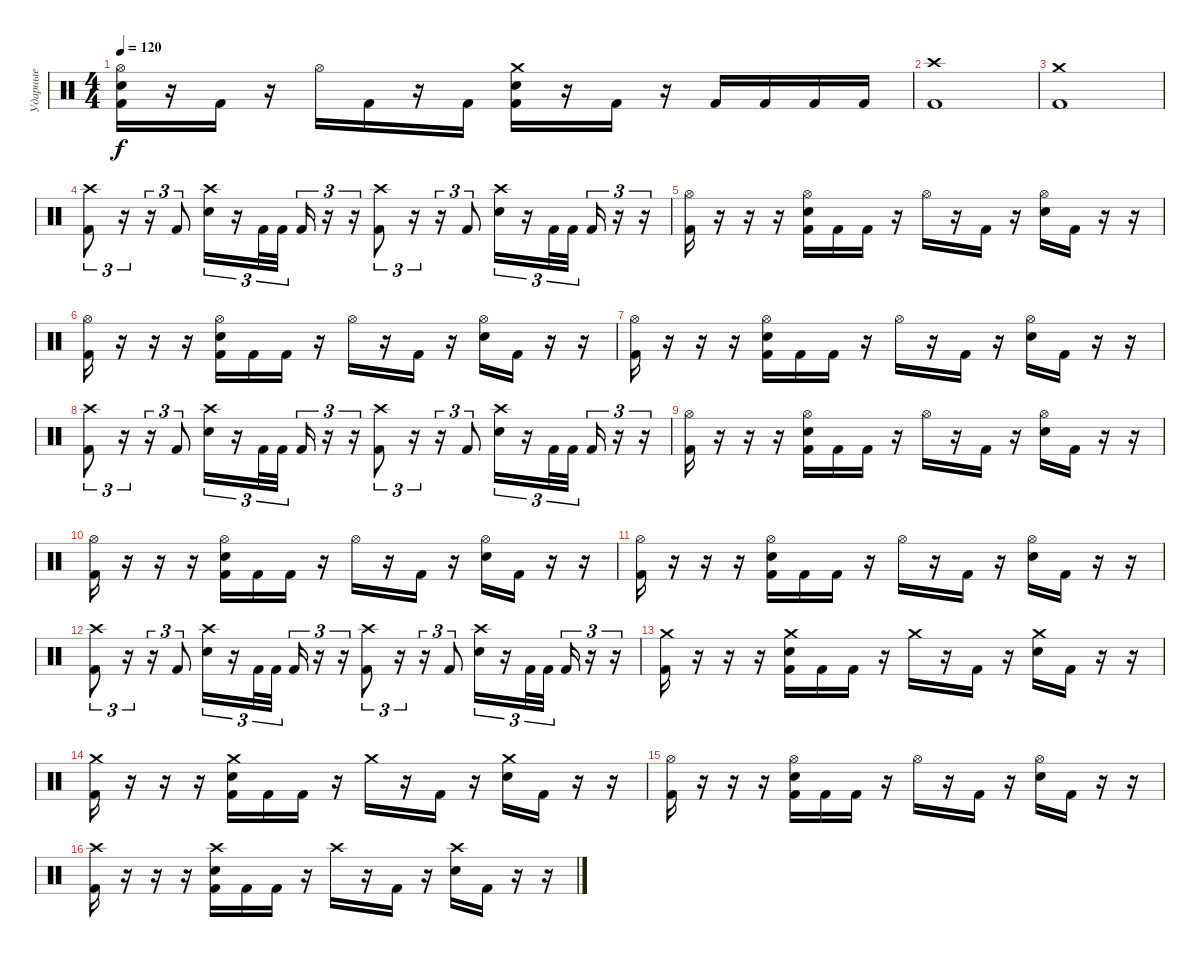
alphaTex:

\track ("Ударные" "Ударные") {instrument percussion}
\staff {score}
\articulation defaults
\ts (4 4)
\tempo 120
\clef neutral
\ks c
("Hi-Hat (open)" "Electric Snare (hit)" "Kick (hit) 2").16{dy f} r.16 "Kick (hit) 2".16 r.16 "Hi-Hat (open)".16 "Kick (hit) 2".16 r.16 "Kick (hit) 2".16 ("Crash medium (hit)" "Electric Snare (hit)" "Kick (hit) 2").16 r.16 "Kick (hit) 2".16 r.16 "Kick (hit) 2".16 "Kick (hit) 2".16 "Kick (hit) 2".16 "Kick (hit) 2".16 |
("Crash high (hit)" "Kick (hit) 2").1 |
("Crash medium (hit)" "Kick (hit) 2").1 |
("Crash high (hit)" "Kick (hit) 2").8{tu (3 2)} r.16{tu (3 2)} r.16{tu (3 2)} "Kick (hit) 2".8{tu (3 2)} ("Crash high (hit)" "Electric Snare (hit)").16{tu (3 2)} r.16{tu (3 2)} "Kick (hit) 2".32{tu (3 2)} "Kick (hit) 2".32{tu (3 2) beam splitsecondary} "Kick (hit) 2".16{tu (3 2)} r.16{tu (3 2)} r.16{tu (3 2)} ("Crash high (hit)" "Kick (hit) 2").8{tu (3 2)} r.16{tu (3 2)} r.16{tu (3 2)} "Kick (hit) 2".8{tu (3 2)} ("Crash high (hit)" "Electric Snare (hit)").16{tu (3 2)} r.16{tu (3 2)} "Kick (hit) 2".32{tu (3 2)} "Kick (hit) 2".32{tu (3 2) beam splitsecondary} "Kick (hit) 2".16{tu (3 2)} r.16{tu (3 2)} r.16{tu (3 2)} |
("Hi-Hat (open)" "Kick (hit) 2").16 r.16 r.16 r.16 ("Hi-Hat (open)" "Electric Snare (hit)" "Kick (hit) 2").16 "Kick (hit) 2".16 "Kick (hit) 2".16 r.16 "Hi-Hat (open)".16 r.16 "Kick (hit) 2".16 r.16 ("Hi-Hat (open)" "Electric Snare (hit)").16 "Kick (hit) 2".16 r.16 r.16 |
("Hi-Hat (open)" "Kick (hit) 2").16 r.16 r.16 r.16 ("Hi-Hat (open)" "Electric Snare (hit)" "Kick (hit) 2").16 "Kick (hit) 2".16 "Kick (hit) 2".16 r.16 "Hi-Hat (open)".16 r.16 "Kick (hit) 2".16 r.16 ("Hi-Hat (open)" "Electric Snare (hit)").16 "Kick (hit) 2".16 r.16 r.16 |
("Hi-Hat (open)" "Kick (hit) 2").16 r.16 r.16 r.16 ("Hi-Hat (open)" "Electric Snare (hit)" "Kick (hit) 2").16 "Kick (hit) 2".16 "Kick (hit) 2".16 r.16 "Hi-Hat (open)".16 r.16 "Kick (hit) 2".16 r.16 ("Hi-Hat (open)" "Electric Snare (hit)").16 "Kick (hit) 2".16 r.16 r.16 |
("Crash high (hit)" "Kick (hit) 2").8{tu (3 2)} r.16{tu (3 2)} r.16{tu (3 2)} "Kick (hit) 2".8{tu (3 2)} ("Crash high (hit)" "Electric Snare (hit)").16{tu (3 2)} r.16{tu (3 2)} "Kick (hit) 2".32{tu (3 2)} "Kick (hit) 2".32{tu (3 2) beam splitsecondary} "Kick (hit) 2".16{tu (3 2)} r.16{tu (3 2)} r.16{tu (3 2)} ("Crash high (hit)" "Kick (hit) 2").8{tu (3 2)} r.16{tu (3 2)} r.16{tu (3 2)} "Kick (hit) 2".8{tu (3 2)} ("Crash high (hit)" "Electric Snare (hit)").16{tu (3 2)} r.16{tu (3 2)} "Kick (hit) 2".32{tu (3 2)} "Kick (hit) 2".32{tu (3 2) beam splitsecondary} "Kick (hit) 2".16{tu (3 2)} r.16{tu (3 2)} r.16{tu (3 2)} |
("Hi-Hat (open)" "Kick (hit) 2").16 r.16 r.16 r.16 ("Hi-Hat (open)" "Electric Snare (hit)" "Kick (hit) 2").16 "Kick (hit) 2".16 "Kick (hit) 2".16 r.16 "Hi-Hat (open)".16 r.16 "Kick (hit) 2".16 r.16 ("Hi-Hat (open)" "Electric Snare (hit)").16 "Kick (hit) 2".16 r.16 r.16 |
("Hi-Hat (open)" "Kick (hit) 2").16 r.16 r.16 r.16 ("Hi-Hat (open)" "Electric Snare (hit)" "Kick (hit) 2").16 "Kick (hit) 2".16 "Kick (hit) 2".16 r.16 "Hi-Hat (open)".16 r.16 "Kick (hit) 2".16 r.16 ("Hi-Hat (open)" "Electric Snare (hit)").16 "Kick (hit) 2".16 r.16 r.16 |
("Hi-Hat (open)" "Kick (hit) 2").16 r.16 r.16 r.16 ("Hi-Hat (open)" "Electric Snare (hit)" "Kick (hit) 2").16 "Kick (hit) 2".16 "Kick (hit) 2".16 r.16 "Hi-Hat (open)".16 r.16 "Kick (hit) 2".16 r.16 ("Hi-Hat (open)" "Electric Snare (hit)").16 "Kick (hit) 2".16 r.16 r.16 |
("Crash high (hit)" "Kick (hit) 2").8{tu (3 2)} r.16{tu (3 2)} r.16{tu (3 2)} "Kick (hit) 2".8{tu (3 2)} ("Crash high (hit)" "Electric Snare (hit)").16{tu (3 2)} r.16{tu (3 2)} "Kick (hit) 2".32{tu (3 2)} "Kick (hit) 2".32{tu (3 2) beam splitsecondary} "Kick (hit) 2".16{tu (3 2)} r.16{tu (3 2)} r.16{tu (3 2)} ("Crash high (hit)" "Kick (hit) 2").8{tu (3 2)} r.16{tu (3 2)} r.16{tu (3 2)} "Kick (hit) 2".8{tu (3 2)} ("Crash high (hit)" "Electric Snare (hit)").16{tu (3 2)} r.16{tu (3 2)} "Kick (hit) 2".32{tu (3 2)} "Kick (hit) 2".32{tu (3 2) beam splitsecondary} "Kick (hit) 2".16{tu (3 2)} r.16{tu (3 2)} r.16{tu (3 2)} |
("Crash medium (hit)" "Kick (hit) 2").16 r.16 r.16 r.16 ("Crash medium (hit)" "Electric Snare (hit)" "Kick (hit) 2").16 "Kick (hit) 2".16 "Kick (hit) 2".16 r.16 "Crash medium (hit)".16 r.16 "Kick (hit) 2".16 r.16 ("Crash medium (hit)" "Electric Snare (hit)").16 "Kick (hit) 2".16 r.16 r.16 |
("Crash medium (hit)" "Kick (hit) 2").16 r.16 r.16 r.16 ("Crash medium (hit)" "Electric Snare (hit)" "Kick (hit) 2").16 "Kick (hit) 2".16 "Kick (hit) 2".16 r.16 "Crash medium (hit)".16 r.16 "Kick (hit) 2".16 r.16 ("Crash medium (hit)" "Electric Snare (hit)").16 "Kick (hit) 2".16 r.16 r.16 |
("Hi-Hat (open)" "Kick (hit) 2").16 r.16 r.16 r.16 ("Hi-Hat (open)" "Electric Snare (hit)" "Kick (hit) 2").16 "Kick (hit) 2".16 "Kick (hit) 2".16 r.16 "Hi-Hat (open)".16 r.16 "Kick (hit) 2".16 r.16 ("Hi-Hat (open)" "Electric Snare (hit)").16 "Kick (hit) 2".16 r.16 r.16 |
("Crash high (hit)" "Kick (hit) 2").16 r.16 r.16 r.16 ("Crash high (hit)" "Electric Snare (hit)" "Kick (hit) 2").16 "Kick (hit) 2".16 "Kick (hit) 2".16 r.16 "Crash high (hit)".16 r.16 "Kick (hit) 2".16 r.16 ("Crash high (hit)" "Electric Snare (hit)").16 "Kick (hit) 2".16 r.16 r.16
